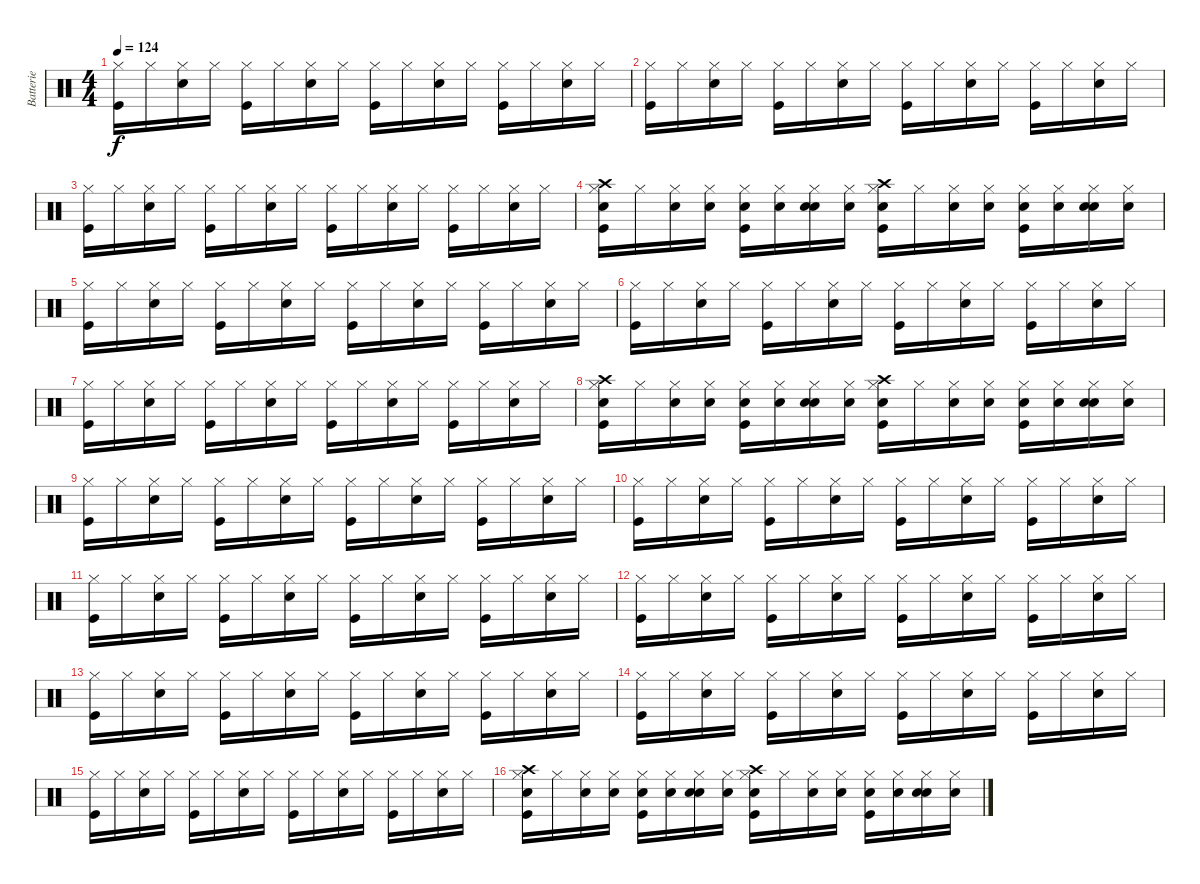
\track ("Batterie" "Batterie") {instrument percussion}
\staff {score}
\articulation defaults
\ts (4 4)
\tempo 124
\clef neutral
\ks c
("Hi-Hat (closed)" "Kick (hit)").16{dy f} "Hi-Hat (closed)".16 ("Hi-Hat (closed)" "Snare (hit) 2").16 "Hi-Hat (closed)".16 ("Hi-Hat (closed)" "Kick (hit)").16 "Hi-Hat (closed)".16 ("Hi-Hat (closed)" "Snare (hit) 2").16 "Hi-Hat (closed)".16 ("Hi-Hat (closed)" "Kick (hit)").16 "Hi-Hat (closed)".16 ("Hi-Hat (closed)" "Snare (hit) 2").16 "Hi-Hat (closed)".16 ("Hi-Hat (closed)" "Kick (hit)").16 "Hi-Hat (closed)".16 ("Hi-Hat (closed)" "Snare (hit) 2").16 "Hi-Hat (closed)".16 |
("Hi-Hat (closed)" "Kick (hit)").16 "Hi-Hat (closed)".16 ("Hi-Hat (closed)" "Snare (hit) 2").16 "Hi-Hat (closed)".16 ("Hi-Hat (closed)" "Kick (hit)").16 "Hi-Hat (closed)".16 ("Hi-Hat (closed)" "Snare (hit) 2").16 "Hi-Hat (closed)".16 ("Hi-Hat (closed)" "Kick (hit)").16 "Hi-Hat (closed)".16 ("Hi-Hat (closed)" "Snare (hit) 2").16 "Hi-Hat (closed)".16 ("Hi-Hat (closed)" "Kick (hit)").16 "Hi-Hat (closed)".16 ("Hi-Hat (closed)" "Snare (hit) 2").16 "Hi-Hat (closed)".16 |
("Hi-Hat (closed)" "Kick (hit)").16 "Hi-Hat (closed)".16 ("Hi-Hat (closed)" "Snare (hit) 2").16 "Hi-Hat (closed)".16 ("Hi-Hat (closed)" "Kick (hit)").16 "Hi-Hat (closed)".16 ("Hi-Hat (closed)" "Snare (hit) 2").16 "Hi-Hat (closed)".16 ("Hi-Hat (closed)" "Kick (hit)").16 "Hi-Hat (closed)".16 ("Hi-Hat (closed)" "Snare (hit) 2").16 "Hi-Hat (closed)".16 ("Hi-Hat (closed)" "Kick (hit)").16 "Hi-Hat (closed)".16 ("Hi-Hat (closed)" "Snare (hit) 2").16 "Hi-Hat (closed)".16 |
("Hi-Hat (closed)" "Crash high (hit)" "Electric Snare (hit)" "Kick (hit)").16 "Hi-Hat (closed)".16 ("Hi-Hat (closed)" "Snare (hit) 2").16 ("Hi-Hat (closed)" "Electric Snare (hit)").16 ("Hi-Hat (closed)" "Electric Snare (hit)" "Kick (hit)").16 ("Hi-Hat (closed)" "Electric Snare (hit)").16 ("Hi-Hat (closed)" "Electric Snare (hit)" "Snare (hit) 2").16 ("Hi-Hat (closed)" "Electric Snare (hit)").16 ("Hi-Hat (closed)" "Crash high (hit)" "Electric Snare (hit)" "Kick (hit)").16 "Hi-Hat (closed)".16 ("Hi-Hat (closed)" "Snare (hit) 2").16 ("Hi-Hat (closed)" "Electric Snare (hit)").16 ("Hi-Hat (closed)" "Electric Snare (hit)" "Kick (hit)").16 ("Hi-Hat (closed)" "Electric Snare (hit)").16 ("Hi-Hat (closed)" "Electric Snare (hit)" "Snare (hit) 2").16 ("Hi-Hat (closed)" "Electric Snare (hit)").16 |
("Hi-Hat (closed)" "Kick (hit)").16 "Hi-Hat (closed)".16 ("Hi-Hat (closed)" "Snare (hit) 2").16 "Hi-Hat (closed)".16 ("Hi-Hat (closed)" "Kick (hit)").16 "Hi-Hat (closed)".16 ("Hi-Hat (closed)" "Snare (hit) 2").16 "Hi-Hat (closed)".16 ("Hi-Hat (closed)" "Kick (hit)").16 "Hi-Hat (closed)".16 ("Hi-Hat (closed)" "Snare (hit) 2").16 "Hi-Hat (closed)".16 ("Hi-Hat (closed)" "Kick (hit)").16 "Hi-Hat (closed)".16 ("Hi-Hat (closed)" "Snare (hit) 2").16 "Hi-Hat (closed)".16 |
("Hi-Hat (closed)" "Kick (hit)").16 "Hi-Hat (closed)".16 ("Hi-Hat (closed)" "Snare (hit) 2").16 "Hi-Hat (closed)".16 ("Hi-Hat (closed)" "Kick (hit)").16 "Hi-Hat (closed)".16 ("Hi-Hat (closed)" "Snare (hit) 2").16 "Hi-Hat (closed)".16 ("Hi-Hat (closed)" "Kick (hit)").16 "Hi-Hat (closed)".16 ("Hi-Hat (closed)" "Snare (hit) 2").16 "Hi-Hat (closed)".16 ("Hi-Hat (closed)" "Kick (hit)").16 "Hi-Hat (closed)".16 ("Hi-Hat (closed)" "Snare (hit) 2").16 "Hi-Hat (closed)".16 |
("Hi-Hat (closed)" "Kick (hit)").16 "Hi-Hat (closed)".16 ("Hi-Hat (closed)" "Snare (hit) 2").16 "Hi-Hat (closed)".16 ("Hi-Hat (closed)" "Kick (hit)").16 "Hi-Hat (closed)".16 ("Hi-Hat (closed)" "Snare (hit) 2").16 "Hi-Hat (closed)".16 ("Hi-Hat (closed)" "Kick (hit)").16 "Hi-Hat (closed)".16 ("Hi-Hat (closed)" "Snare (hit) 2").16 "Hi-Hat (closed)".16 ("Hi-Hat (closed)" "Kick (hit)").16 "Hi-Hat (closed)".16 ("Hi-Hat (closed)" "Snare (hit) 2").16 "Hi-Hat (closed)".16 |
("Hi-Hat (closed)" "Crash high (hit)" "Electric Snare (hit)" "Kick (hit)").16 "Hi-Hat (closed)".16 ("Hi-Hat (closed)" "Snare (hit) 2").16 ("Hi-Hat (closed)" "Electric Snare (hit)").16 ("Hi-Hat (closed)" "Electric Snare (hit)" "Kick (hit)").16 ("Hi-Hat (closed)" "Electric Snare (hit)").16 ("Hi-Hat (closed)" "Electric Snare (hit)" "Snare (hit) 2").16 ("Hi-Hat (closed)" "Electric Snare (hit)").16 ("Hi-Hat (closed)" "Crash high (hit)" "Electric Snare (hit)" "Kick (hit)").16 "Hi-Hat (closed)".16 ("Hi-Hat (closed)" "Snare (hit) 2").16 ("Hi-Hat (closed)" "Electric Snare (hit)").16 ("Hi-Hat (closed)" "Electric Snare (hit)" "Kick (hit)").16 ("Hi-Hat (closed)" "Electric Snare (hit)").16 ("Hi-Hat (closed)" "Electric Snare (hit)" "Snare (hit) 2").16 ("Hi-Hat (closed)" "Electric Snare (hit)").16 |
("Hi-Hat (closed)" "Kick (hit)").16 "Hi-Hat (closed)".16 ("Hi-Hat (closed)" "Snare (hit) 2").16 "Hi-Hat (closed)".16 ("Hi-Hat (closed)" "Kick (hit)").16 "Hi-Hat (closed)".16 ("Hi-Hat (closed)" "Snare (hit) 2").16 "Hi-Hat (closed)".16 ("Hi-Hat (closed)" "Kick (hit)").16 "Hi-Hat (closed)".16 ("Hi-Hat (closed)" "Snare (hit) 2").16 "Hi-Hat (closed)".16 ("Hi-Hat (closed)" "Kick (hit)").16 "Hi-Hat (closed)".16 ("Hi-Hat (closed)" "Snare (hit) 2").16 "Hi-Hat (closed)".16 |
("Hi-Hat (closed)" "Kick (hit)").16 "Hi-Hat (closed)".16 ("Hi-Hat (closed)" "Snare (hit) 2").16 "Hi-Hat (closed)".16 ("Hi-Hat (closed)" "Kick (hit)").16 "Hi-Hat (closed)".16 ("Hi-Hat (closed)" "Snare (hit) 2").16 "Hi-Hat (closed)".16 ("Hi-Hat (closed)" "Kick (hit)").16 "Hi-Hat (closed)".16 ("Hi-Hat (closed)" "Snare (hit) 2").16 "Hi-Hat (closed)".16 ("Hi-Hat (closed)" "Kick (hit)").16 "Hi-Hat (closed)".16 ("Hi-Hat (closed)" "Snare (hit) 2").16 "Hi-Hat (closed)".16 |
("Hi-Hat (closed)" "Kick (hit)").16 "Hi-Hat (closed)".16 ("Hi-Hat (closed)" "Snare (hit) 2").16 "Hi-Hat (closed)".16 ("Hi-Hat (closed)" "Kick (hit)").16 "Hi-Hat (closed)".16 ("Hi-Hat (closed)" "Snare (hit) 2").16 "Hi-Hat (closed)".16 ("Hi-Hat (closed)" "Kick (hit)").16 "Hi-Hat (closed)".16 ("Hi-Hat (closed)" "Snare (hit) 2").16 "Hi-Hat (closed)".16 ("Hi-Hat (closed)" "Kick (hit)").16 "Hi-Hat (closed)".16 ("Hi-Hat (closed)" "Snare (hit) 2").16 "Hi-Hat (closed)".16 |
("Hi-Hat (closed)" "Kick (hit)").16 "Hi-Hat (closed)".16 ("Hi-Hat (closed)" "Snare (hit) 2").16 "Hi-Hat (closed)".16 ("Hi-Hat (closed)" "Kick (hit)").16 "Hi-Hat (closed)".16 ("Hi-Hat (closed)" "Snare (hit) 2").16 "Hi-Hat (closed)".16 ("Hi-Hat (closed)" "Kick (hit)").16 "Hi-Hat (closed)".16 ("Hi-Hat (closed)" "Snare (hit) 2").16 "Hi-Hat (closed)".16 ("Hi-Hat (closed)" "Kick (hit)").16 "Hi-Hat (closed)".16 ("Hi-Hat (closed)" "Snare (hit) 2").16 "Hi-Hat (closed)".16 |
("Hi-Hat (closed)" "Kick (hit)").16 "Hi-Hat (closed)".16 ("Hi-Hat (closed)" "Snare (hit) 2").16 "Hi-Hat (closed)".16 ("Hi-Hat (closed)" "Kick (hit)").16 "Hi-Hat (closed)".16 ("Hi-Hat (closed)" "Snare (hit) 2").16 "Hi-Hat (closed)".16 ("Hi-Hat (closed)" "Kick (hit)").16 "Hi-Hat (closed)".16 ("Hi-Hat (closed)" "Snare (hit) 2").16 "Hi-Hat (closed)".16 ("Hi-Hat (closed)" "Kick (hit)").16 "Hi-Hat (closed)".16 ("Hi-Hat (closed)" "Snare (hit) 2").16 "Hi-Hat (closed)".16 |
("Hi-Hat (closed)" "Kick (hit)").16 "Hi-Hat (closed)".16 ("Hi-Hat (closed)" "Snare (hit) 2").16 "Hi-Hat (closed)".16 ("Hi-Hat (closed)" "Kick (hit)").16 "Hi-Hat (closed)".16 ("Hi-Hat (closed)" "Snare (hit) 2").16 "Hi-Hat (closed)".16 ("Hi-Hat (closed)" "Kick (hit)").16 "Hi-Hat (closed)".16 ("Hi-Hat (closed)" "Snare (hit) 2").16 "Hi-Hat (closed)".16 ("Hi-Hat (closed)" "Kick (hit)").16 "Hi-Hat (closed)".16 ("Hi-Hat (closed)" "Snare (hit) 2").16 "Hi-Hat (closed)".16 |
("Hi-Hat (closed)" "Kick (hit)").16 "Hi-Hat (closed)".16 ("Hi-Hat (closed)" "Snare (hit) 2").16 "Hi-Hat (closed)".16 ("Hi-Hat (closed)" "Kick (hit)").16 "Hi-Hat (closed)".16 ("Hi-Hat (closed)" "Snare (hit) 2").16 "Hi-Hat (closed)".16 ("Hi-Hat (closed)" "Kick (hit)").16 "Hi-Hat (closed)".16 ("Hi-Hat (closed)" "Snare (hit) 2").16 "Hi-Hat (closed)".16 ("Hi-Hat (closed)" "Kick (hit)").16 "Hi-Hat (closed)".16 ("Hi-Hat (closed)" "Snare (hit) 2").16 "Hi-Hat (closed)".16 |
("Hi-Hat (closed)" "Crash high (hit)" "Electric Snare (hit)" "Kick (hit)").16 "Hi-Hat (closed)".16 ("Hi-Hat (closed)" "Snare (hit) 2").16 ("Hi-Hat (closed)" "Electric Snare (hit)").16 ("Hi-Hat (closed)" "Electric Snare (hit)" "Kick (hit)").16 ("Hi-Hat (closed)" "Electric Snare (hit)").16 ("Hi-Hat (closed)" "Electric Snare (hit)" "Snare (hit) 2").16 ("Hi-Hat (closed)" "Electric Snare (hit)").16 ("Hi-Hat (closed)" "Crash high (hit)" "Electric Snare (hit)" "Kick (hit)").16 "Hi-Hat (closed)".16 ("Hi-Hat (closed)" "Snare (hit) 2").16 ("Hi-Hat (closed)" "Electric Snare (hit)").16 ("Hi-Hat (closed)" "Electric Snare (hit)" "Kick (hit)").16 ("Hi-Hat (closed)" "Electric Snare (hit)").16 ("Hi-Hat (closed)" "Electric Snare (hit)" "Snare (hit) 2").16 ("Hi-Hat (closed)" "Electric Snare (hit)").16
